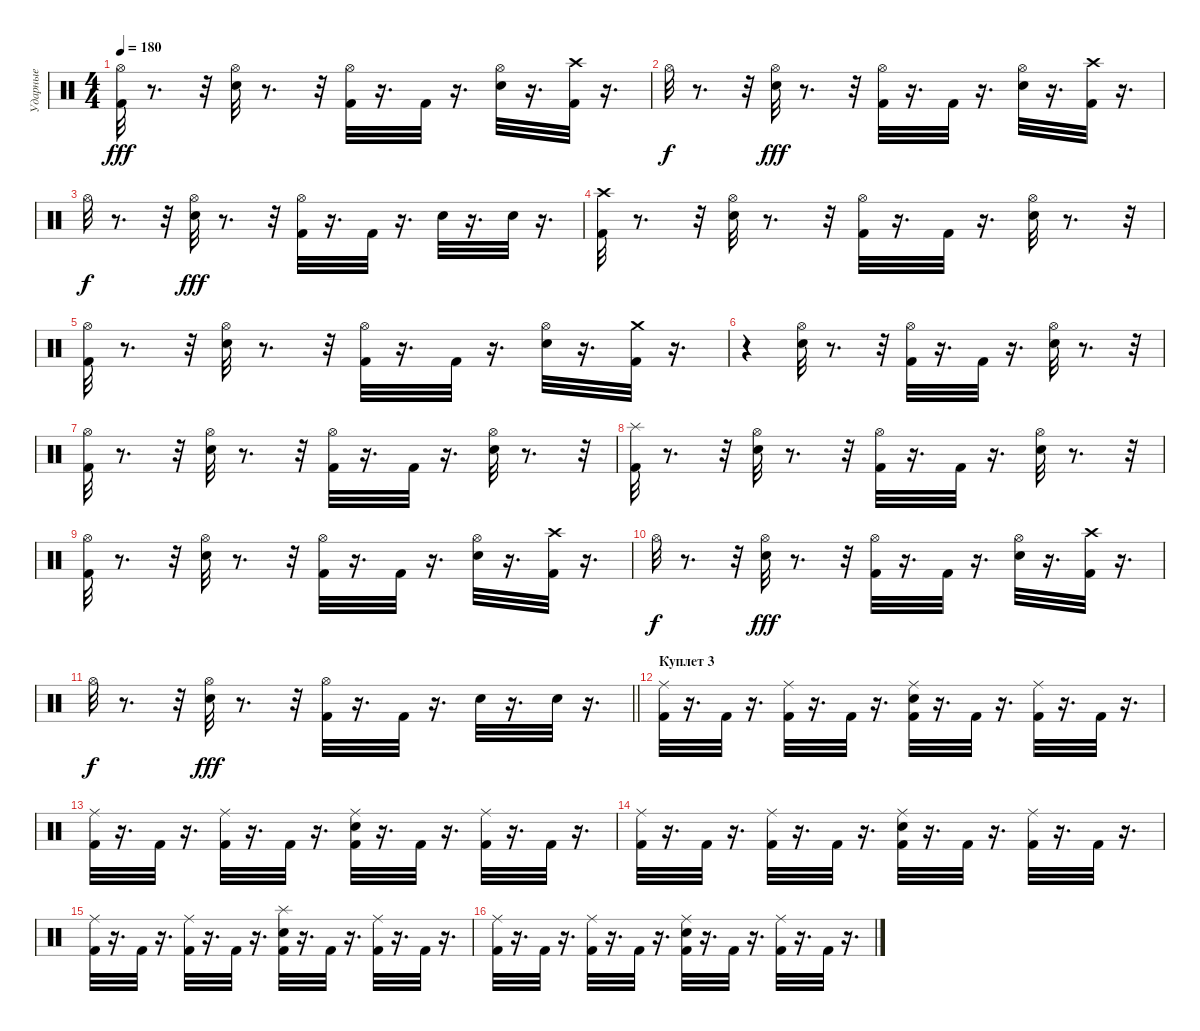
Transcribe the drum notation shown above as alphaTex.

\track ("Ударные" "Ударные") {instrument percussion}
\staff {score}
\articulation defaults
\ts (4 4)
\tempo 180
\clef neutral
\ks c
("Kick (hit) 2" "Hi-Hat (open)").32{dy fff} r.8{d} r.32 ("Snare (hit) 2" "Hi-Hat (open)").32 r.8{d} r.32 ("Hi-Hat (open)" "Kick (hit) 2").32 r.16{d} "Kick (hit) 2".32 r.16{d} ("Snare (hit) 2" "Hi-Hat (open)").32 r.16{d} ("Crash high (hit)" "Kick (hit) 2").32 r.16{d} |
"Hi-Hat (open)".32{dy f} r.8{d} r.32 ("Hi-Hat (open)" "Snare (hit) 2").32{dy fff} r.8{d} r.32 ("Kick (hit) 2" "Hi-Hat (open)").32 r.16{d} "Kick (hit) 2".32 r.16{d} ("Hi-Hat (open)" "Snare (hit) 2").32 r.16{d} ("Kick (hit) 2" "Crash high (hit)").32 r.16{d} |
"Hi-Hat (open)".32{dy f} r.8{d} r.32 ("Hi-Hat (open)" "Snare (hit) 2").32{dy fff} r.8{d} r.32 ("Hi-Hat (open)" "Kick (hit) 2").32 r.16{d} "Kick (hit) 2".32 r.16{d} "Snare (hit) 2".32 r.16{d} "Snare (hit) 2".32 r.16{d} |
("Kick (hit) 2" "Crash high (hit)").32 r.8{d} r.32 ("Snare (hit) 2" "Hi-Hat (open)").32 r.8{d} r.32 ("Hi-Hat (open)" "Kick (hit) 2").32 r.16{d} "Kick (hit) 2".32 r.16{d} ("Hi-Hat (open)" "Snare (hit) 2").32 r.8{d} r.32 |
("Hi-Hat (open)" "Kick (hit) 2").32 r.8{d} r.32 ("Hi-Hat (open)" "Snare (hit) 2").32 r.8{d} r.32 ("Kick (hit) 2" "Hi-Hat (open)").32 r.16{d} "Kick (hit) 2".32 r.16{d} ("Hi-Hat (open)" "Snare (hit) 2").32 r.16{d} ("Crash medium (hit)" "Kick (hit) 2").32 r.16{d} |
r.4 ("Snare (hit) 2" "Hi-Hat (open)").32 r.8{d} r.32 ("Hi-Hat (open)" "Kick (hit) 2").32 r.16{d} "Kick (hit) 2".32 r.16{d} ("Hi-Hat (open)" "Snare (hit) 2").32 r.8{d} r.32 |
("Hi-Hat (open)" "Kick (hit) 2").32 r.8{d} r.32 ("Snare (hit) 2" "Hi-Hat (open)").32 r.8{d} r.32 ("Kick (hit) 2" "Hi-Hat (open)").32 r.16{d} "Kick (hit) 2".32 r.16{d} ("Hi-Hat (open)" "Snare (hit) 2").32 r.8{d} r.32 |
("Kick (hit) 2" "Splash (hit)").32 r.8{d} r.32 ("Snare (hit) 2" "Hi-Hat (open)").32 r.8{d} r.32 ("Kick (hit) 2" "Hi-Hat (open)").32 r.16{d} "Kick (hit) 2".32 r.16{d} ("Hi-Hat (open)" "Snare (hit) 2").32 r.8{d} r.32 |
("Kick (hit) 2" "Hi-Hat (open)").32 r.8{d} r.32 ("Snare (hit) 2" "Hi-Hat (open)").32 r.8{d} r.32 ("Kick (hit) 2" "Hi-Hat (open)").32 r.16{d} "Kick (hit) 2".32 r.16{d} ("Hi-Hat (open)" "Snare (hit) 2").32 r.16{d} ("Crash high (hit)" "Kick (hit) 2").32 r.16{d} |
"Hi-Hat (open)".32{dy f} r.8{d} r.32 ("Snare (hit) 2" "Hi-Hat (open)").32{dy fff} r.8{d} r.32 ("Hi-Hat (open)" "Kick (hit) 2").32 r.16{d} "Kick (hit) 2".32 r.16{d} ("Snare (hit) 2" "Hi-Hat (open)").32 r.16{d} ("Crash high (hit)" "Kick (hit) 2").32 r.16{d} |
\barLineRight lightlight "Hi-Hat (open)".32{dy f}
r.8{d} r.32 ("Snare (hit) 2" "Hi-Hat (open)").32{dy fff} r.8{d} r.32 ("Kick (hit) 2" "Hi-Hat (open)").32 r.16{d} "Kick (hit) 2".32 r.16{d} "Snare (hit) 2".32 r.16{d} "Snare (hit) 2".32 r.16{d} |
\section ("" "Куплет 3")
("Ride (middle)" "Kick (hit) 2").32 r.16{d} "Kick (hit) 2".32 r.16{d} ("Ride (middle)" "Kick (hit) 2").32 r.16{d} "Kick (hit) 2".32 r.16{d} ("Snare (hit) 2" "Ride (middle)" "Kick (hit) 2").32 r.16{d} "Kick (hit) 2".32 r.16{d} ("Ride (middle)" "Kick (hit) 2").32 r.16{d} "Kick (hit) 2".32 r.16{d} |
("Ride (middle)" "Kick (hit) 2").32 r.16{d} "Kick (hit) 2".32 r.16{d} ("Ride (middle)" "Kick (hit) 2").32 r.16{d} "Kick (hit) 2".32 r.16{d} ("Snare (hit) 2" "Kick (hit) 2" "Ride (middle)").32 r.16{d} "Kick (hit) 2".32 r.16{d} ("Ride (middle)" "Kick (hit) 2").32 r.16{d} "Kick (hit) 2".32 r.16{d} |
("Kick (hit) 2" "Ride (middle)").32 r.16{d} "Kick (hit) 2".32 r.16{d} ("Kick (hit) 2" "Ride (middle)").32 r.16{d} "Kick (hit) 2".32 r.16{d} ("Kick (hit) 2" "Snare (hit) 2" "Ride (middle)").32 r.16{d} "Kick (hit) 2".32 r.16{d} ("Ride (middle)" "Kick (hit) 2").32 r.16{d} "Kick (hit) 2".32 r.16{d} |
("Kick (hit) 2" "Ride (middle)").32 r.16{d} "Kick (hit) 2".32 r.16{d} ("Kick (hit) 2" "Ride (middle)").32 r.16{d} "Kick (hit) 2".32 r.16{d} ("Kick (hit) 2" "Splash (hit)" "Snare (hit) 2").32 r.16{d} "Kick (hit) 2".32 r.16{d} ("Kick (hit) 2" "Ride (middle)").32 r.16{d} "Kick (hit) 2".32 r.16{d} |
("Ride (middle)" "Kick (hit) 2").32 r.16{d} "Kick (hit) 2".32 r.16{d} ("Kick (hit) 2" "Ride (middle)").32 r.16{d} "Kick (hit) 2".32 r.16{d} ("Snare (hit) 2" "Ride (middle)" "Kick (hit) 2").32 r.16{d} "Kick (hit) 2".32 r.16{d} ("Kick (hit) 2" "Ride (middle)").32 r.16{d} "Kick (hit) 2".32 r.16{d}
